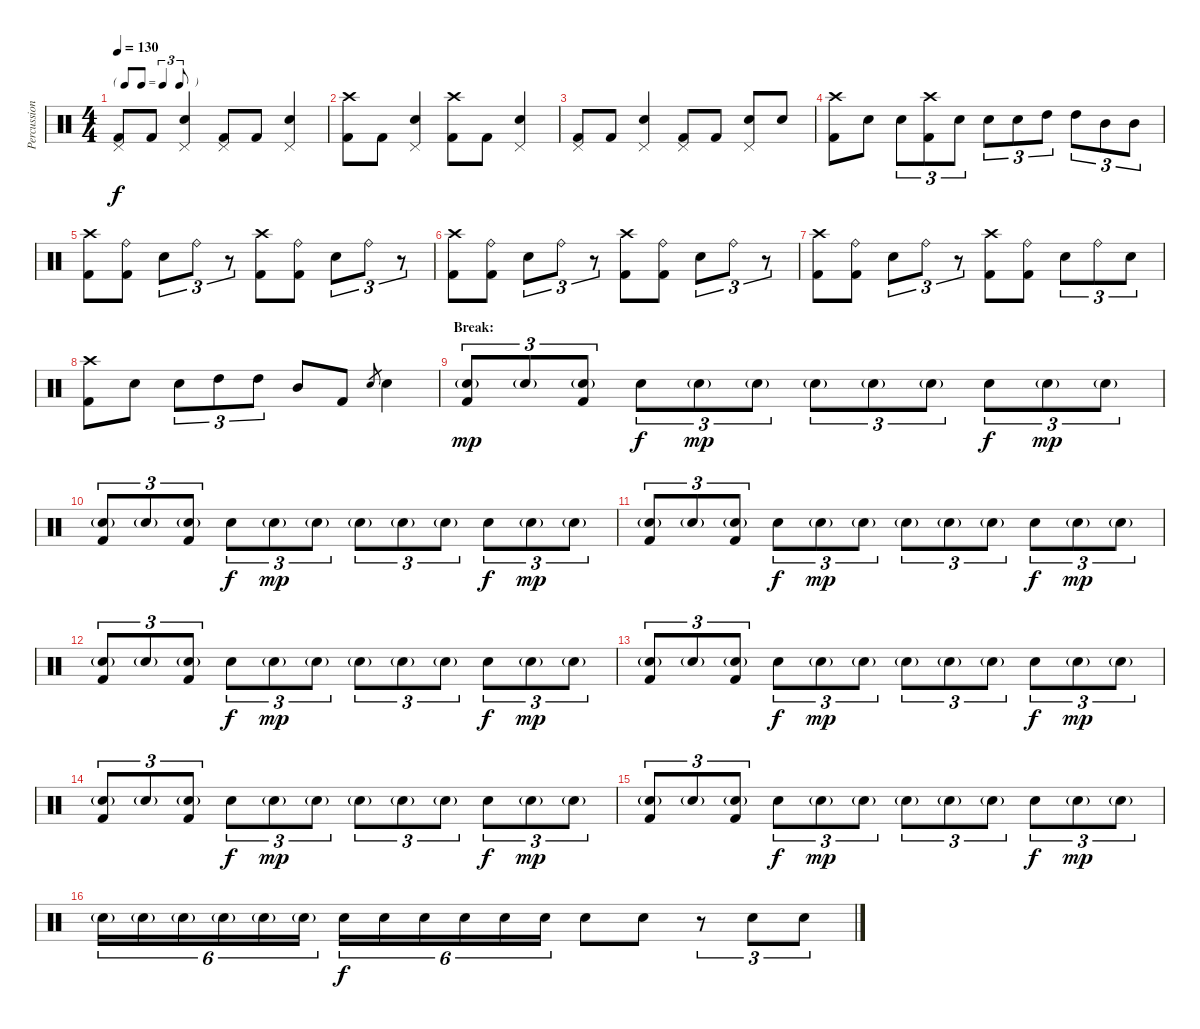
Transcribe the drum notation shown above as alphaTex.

\track ("Percussion" "Percussion") {instrument percussion}
\staff {score}
\articulation defaults
\ts (4 4)
\tf triplet8th
\tempo 130
\clef neutral
\ks c
("Pedal Hi-Hat (hit)" "Kick (hit) 2").8{dy f} "Kick (hit) 2".8 ("Pedal Hi-Hat (hit)" "Electric Snare (hit)").4 ("Pedal Hi-Hat (hit)" "Kick (hit) 2").8 "Kick (hit) 2".8 ("Pedal Hi-Hat (hit)" "Electric Snare (hit)").4 |
("Crash high (hit)" "Kick (hit) 2").8 "Kick (hit) 2".8 ("Pedal Hi-Hat (hit)" "Electric Snare (hit)").4 ("Crash high (hit)" "Kick (hit) 2").8 "Kick (hit) 2".8 ("Pedal Hi-Hat (hit)" "Electric Snare (hit)").4 |
("Pedal Hi-Hat (hit)" "Kick (hit) 2").8 "Kick (hit) 2".8 ("Pedal Hi-Hat (hit)" "Electric Snare (hit)").4 ("Pedal Hi-Hat (hit)" "Kick (hit) 2").8 "Kick (hit) 2".8 ("Pedal Hi-Hat (hit)" "Electric Snare (hit)").8 "Electric Snare (hit)".8 |
("Crash high (hit)" "Kick (hit) 2").8 "Electric Snare (hit)".8 "Electric Snare (hit)".8{tu (3 2)} ("Crash high (hit)" "Kick (hit) 2").8{tu (3 2)} "Electric Snare (hit)".8{tu (3 2)} "Electric Snare (hit)".8{tu (3 2)} "Electric Snare (hit)".8{tu (3 2)} "High Tom (hit)".8{tu (3 2)} "High Tom (hit)".8{tu (3 2)} "Mid Tom (hit)".8{tu (3 2)} "Mid Tom (hit)".8{tu (3 2)} |
("Crash high (hit)" "Kick (hit) 2").8 ("Ride (bell)" "Kick (hit) 2").8 "Electric Snare (hit)".8{tu (3 2)} "Ride (bell)".8{tu (3 2)} r.8{tu (3 2)} ("Crash high (hit)" "Kick (hit) 2").8 ("Ride (bell)" "Kick (hit) 2").8 "Electric Snare (hit)".8{tu (3 2)} "Ride (bell)".8{tu (3 2)} r.8{tu (3 2)} |
("Crash high (hit)" "Kick (hit) 2").8 ("Ride (bell)" "Kick (hit) 2").8 "Electric Snare (hit)".8{tu (3 2)} "Ride (bell)".8{tu (3 2)} r.8{tu (3 2)} ("Crash high (hit)" "Kick (hit) 2").8 ("Ride (bell)" "Kick (hit) 2").8 "Electric Snare (hit)".8{tu (3 2)} "Ride (bell)".8{tu (3 2)} r.8{tu (3 2)} |
("Crash high (hit)" "Kick (hit) 2").8 ("Ride (bell)" "Kick (hit) 2").8 "Electric Snare (hit)".8{tu (3 2)} "Ride (bell)".8{tu (3 2)} r.8{tu (3 2)} ("Crash high (hit)" "Kick (hit) 2").8 ("Ride (bell)" "Kick (hit) 2").8 "Electric Snare (hit)".8{tu (3 2)} "Ride (bell)".8{tu (3 2)} "Electric Snare (hit)".8{tu (3 2)} |
("Crash high (hit)" "Kick (hit) 2").8 "Electric Snare (hit)".8 "Electric Snare (hit)".8{tu (3 2)} "High Tom (hit)".8{tu (3 2)} "High Tom (hit)".8{tu (3 2)} "Mid Tom (hit)".8 "Kick (hit) 2".8 "Electric Snare (hit)".8{gr} "Electric Snare (hit)".4 |
\section ("" "Break:")
("Electric Snare (hit)"{g} "Kick (hit) 2").8{tu (3 2) dy mp} "Electric Snare (hit)"{g}.8{tu (3 2)} ("Electric Snare (hit)"{g} "Kick (hit) 2").8{tu (3 2)} "Electric Snare (hit)".8{tu (3 2) dy f} "Electric Snare (hit)"{g}.8{tu (3 2) dy mp} "Electric Snare (hit)"{g}.8{tu (3 2)} "Electric Snare (hit)"{g}.8{tu (3 2)} "Electric Snare (hit)"{g}.8{tu (3 2)} "Electric Snare (hit)"{g}.8{tu (3 2)} "Electric Snare (hit)".8{tu (3 2) dy f} "Electric Snare (hit)"{g}.8{tu (3 2) dy mp} "Electric Snare (hit)"{g}.8{tu (3 2)} |
("Electric Snare (hit)"{g} "Kick (hit) 2").8{tu (3 2)} "Electric Snare (hit)"{g}.8{tu (3 2)} ("Electric Snare (hit)"{g} "Kick (hit) 2").8{tu (3 2)} "Electric Snare (hit)".8{tu (3 2) dy f} "Electric Snare (hit)"{g}.8{tu (3 2) dy mp} "Electric Snare (hit)"{g}.8{tu (3 2)} "Electric Snare (hit)"{g}.8{tu (3 2)} "Electric Snare (hit)"{g}.8{tu (3 2)} "Electric Snare (hit)"{g}.8{tu (3 2)} "Electric Snare (hit)".8{tu (3 2) dy f} "Electric Snare (hit)"{g}.8{tu (3 2) dy mp} "Electric Snare (hit)"{g}.8{tu (3 2)} |
("Electric Snare (hit)"{g} "Kick (hit) 2").8{tu (3 2)} "Electric Snare (hit)"{g}.8{tu (3 2)} ("Electric Snare (hit)"{g} "Kick (hit) 2").8{tu (3 2)} "Electric Snare (hit)".8{tu (3 2) dy f} "Electric Snare (hit)"{g}.8{tu (3 2) dy mp} "Electric Snare (hit)"{g}.8{tu (3 2)} "Electric Snare (hit)"{g}.8{tu (3 2)} "Electric Snare (hit)"{g}.8{tu (3 2)} "Electric Snare (hit)"{g}.8{tu (3 2)} "Electric Snare (hit)".8{tu (3 2) dy f} "Electric Snare (hit)"{g}.8{tu (3 2) dy mp} "Electric Snare (hit)"{g}.8{tu (3 2)} |
("Electric Snare (hit)"{g} "Kick (hit) 2").8{tu (3 2)} "Electric Snare (hit)"{g}.8{tu (3 2)} ("Electric Snare (hit)"{g} "Kick (hit) 2").8{tu (3 2)} "Electric Snare (hit)".8{tu (3 2) dy f} "Electric Snare (hit)"{g}.8{tu (3 2) dy mp} "Electric Snare (hit)"{g}.8{tu (3 2)} "Electric Snare (hit)"{g}.8{tu (3 2)} "Electric Snare (hit)"{g}.8{tu (3 2)} "Electric Snare (hit)"{g}.8{tu (3 2)} "Electric Snare (hit)".8{tu (3 2) dy f} "Electric Snare (hit)"{g}.8{tu (3 2) dy mp} "Electric Snare (hit)"{g}.8{tu (3 2)} |
("Electric Snare (hit)"{g} "Kick (hit) 2").8{tu (3 2)} "Electric Snare (hit)"{g}.8{tu (3 2)} ("Electric Snare (hit)"{g} "Kick (hit) 2").8{tu (3 2)} "Electric Snare (hit)".8{tu (3 2) dy f} "Electric Snare (hit)"{g}.8{tu (3 2) dy mp} "Electric Snare (hit)"{g}.8{tu (3 2)} "Electric Snare (hit)"{g}.8{tu (3 2)} "Electric Snare (hit)"{g}.8{tu (3 2)} "Electric Snare (hit)"{g}.8{tu (3 2)} "Electric Snare (hit)".8{tu (3 2) dy f} "Electric Snare (hit)"{g}.8{tu (3 2) dy mp} "Electric Snare (hit)"{g}.8{tu (3 2)} |
("Electric Snare (hit)"{g} "Kick (hit) 2").8{tu (3 2)} "Electric Snare (hit)"{g}.8{tu (3 2)} ("Electric Snare (hit)"{g} "Kick (hit) 2").8{tu (3 2)} "Electric Snare (hit)".8{tu (3 2) dy f} "Electric Snare (hit)"{g}.8{tu (3 2) dy mp} "Electric Snare (hit)"{g}.8{tu (3 2)} "Electric Snare (hit)"{g}.8{tu (3 2)} "Electric Snare (hit)"{g}.8{tu (3 2)} "Electric Snare (hit)"{g}.8{tu (3 2)} "Electric Snare (hit)".8{tu (3 2) dy f} "Electric Snare (hit)"{g}.8{tu (3 2) dy mp} "Electric Snare (hit)"{g}.8{tu (3 2)} |
("Electric Snare (hit)"{g} "Kick (hit) 2").8{tu (3 2)} "Electric Snare (hit)"{g}.8{tu (3 2)} ("Electric Snare (hit)"{g} "Kick (hit) 2").8{tu (3 2)} "Electric Snare (hit)".8{tu (3 2) dy f} "Electric Snare (hit)"{g}.8{tu (3 2) dy mp} "Electric Snare (hit)"{g}.8{tu (3 2)} "Electric Snare (hit)"{g}.8{tu (3 2)} "Electric Snare (hit)"{g}.8{tu (3 2)} "Electric Snare (hit)"{g}.8{tu (3 2)} "Electric Snare (hit)".8{tu (3 2) dy f} "Electric Snare (hit)"{g}.8{tu (3 2) dy mp} "Electric Snare (hit)"{g}.8{tu (3 2)} |
"Electric Snare (hit)"{g}.16{tu (6 4)} "Electric Snare (hit)"{g}.16{tu (6 4)} "Electric Snare (hit)"{g}.16{tu (6 4)} "Electric Snare (hit)"{g}.16{tu (6 4)} "Electric Snare (hit)"{g}.16{tu (6 4)} "Electric Snare (hit)"{g}.16{tu (6 4)} "Electric Snare (hit)".16{tu (6 4) dy f} "Electric Snare (hit)".16{tu (6 4)} "Electric Snare (hit)".16{tu (6 4)} "Electric Snare (hit)".16{tu (6 4)} "Electric Snare (hit)".16{tu (6 4)} "Electric Snare (hit)".16{tu (6 4)} "Electric Snare (hit)".8 "Electric Snare (hit)".8 r.8{tu (3 2)} "Electric Snare (hit)".8{tu (3 2)} "Electric Snare (hit)".8{tu (3 2)}
